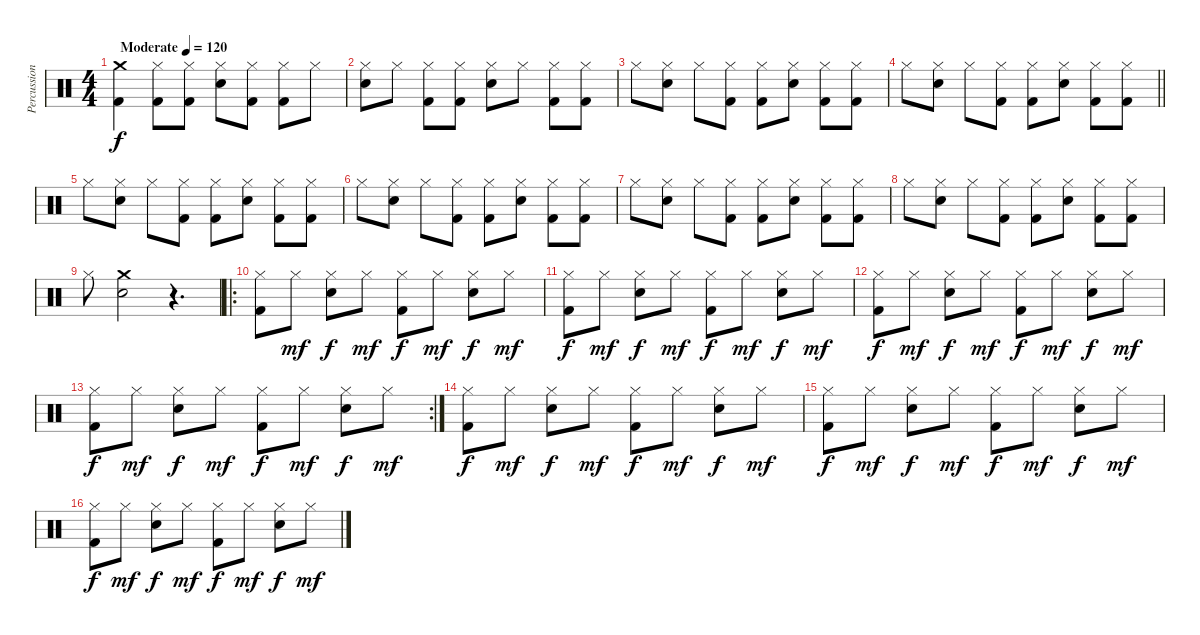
\track ("Percussion" "Percussion") {instrument percussion}
\staff {score}
\articulation defaults
\ts (4 4)
\tempo (120 "Moderate")
\clef neutral
\ks c
("Crash medium (hit)" "Kick (hit) 2").4{dy f} ("Hi-Hat (closed)" "Kick (hit) 2").8 ("Hi-Hat (closed)" "Kick (hit) 2").8 ("Hi-Hat (closed)" "Electric Snare (hit)").8 ("Hi-Hat (closed)" "Kick (hit) 2").8 ("Hi-Hat (closed)" "Kick (hit) 2").8 "Hi-Hat (closed)".8 |
("Hi-Hat (closed)" "Electric Snare (hit)").8 "Hi-Hat (closed)".8 ("Hi-Hat (closed)" "Kick (hit) 2").8 ("Hi-Hat (closed)" "Kick (hit) 2").8 ("Hi-Hat (closed)" "Electric Snare (hit)").8 "Hi-Hat (closed)".8 ("Hi-Hat (closed)" "Kick (hit) 2").8 ("Hi-Hat (closed)" "Kick (hit) 2").8 |
"Hi-Hat (closed)".8 ("Hi-Hat (closed)" "Electric Snare (hit)").8 "Hi-Hat (closed)".8 ("Hi-Hat (closed)" "Kick (hit) 2").8 ("Hi-Hat (closed)" "Kick (hit) 2").8 ("Hi-Hat (closed)" "Electric Snare (hit)").8 ("Hi-Hat (closed)" "Kick (hit) 2").8 ("Hi-Hat (closed)" "Kick (hit) 2").8 |
\barLineRight lightlight "Hi-Hat (closed)".8
("Hi-Hat (closed)" "Electric Snare (hit)").8 "Hi-Hat (closed)".8 ("Hi-Hat (closed)" "Kick (hit) 2").8 ("Hi-Hat (closed)" "Kick (hit) 2").8 ("Hi-Hat (closed)" "Electric Snare (hit)").8 ("Hi-Hat (closed)" "Kick (hit) 2").8 ("Hi-Hat (closed)" "Kick (hit) 2").8 |
"Hi-Hat (closed)".8 ("Hi-Hat (closed)" "Electric Snare (hit)").8 "Hi-Hat (closed)".8 ("Hi-Hat (closed)" "Kick (hit) 2").8 ("Hi-Hat (closed)" "Kick (hit) 2").8 ("Hi-Hat (closed)" "Electric Snare (hit)").8 ("Hi-Hat (closed)" "Kick (hit) 2").8 ("Hi-Hat (closed)" "Kick (hit) 2").8 |
"Hi-Hat (closed)".8 ("Hi-Hat (closed)" "Electric Snare (hit)").8 "Hi-Hat (closed)".8 ("Hi-Hat (closed)" "Kick (hit) 2").8 ("Hi-Hat (closed)" "Kick (hit) 2").8 ("Hi-Hat (closed)" "Electric Snare (hit)").8 ("Hi-Hat (closed)" "Kick (hit) 2").8 ("Hi-Hat (closed)" "Kick (hit) 2").8 |
"Hi-Hat (closed)".8 ("Hi-Hat (closed)" "Electric Snare (hit)").8 "Hi-Hat (closed)".8 ("Hi-Hat (closed)" "Kick (hit) 2").8 ("Hi-Hat (closed)" "Kick (hit) 2").8 ("Hi-Hat (closed)" "Electric Snare (hit)").8 ("Hi-Hat (closed)" "Kick (hit) 2").8 ("Hi-Hat (closed)" "Kick (hit) 2").8 |
"Hi-Hat (closed)".8 ("Hi-Hat (closed)" "Electric Snare (hit)").8 "Hi-Hat (closed)".8 ("Hi-Hat (closed)" "Kick (hit) 2").8 ("Hi-Hat (closed)" "Kick (hit) 2").8 ("Hi-Hat (closed)" "Electric Snare (hit)").8 ("Hi-Hat (closed)" "Kick (hit) 2").8 ("Hi-Hat (closed)" "Kick (hit) 2").8 |
"Hi-Hat (closed)".8 ("Crash medium (hit)" "Electric Snare (hit)").2 r.4{d} |
\ro
("Hi-Hat (closed)" "Kick (hit) 2").8 "Hi-Hat (closed)".8{dy mf} ("Hi-Hat (closed)" "Electric Snare (hit)").8{dy f} "Hi-Hat (closed)".8{dy mf} ("Hi-Hat (closed)" "Kick (hit) 2").8{dy f} "Hi-Hat (closed)".8{dy mf} ("Hi-Hat (closed)" "Electric Snare (hit)").8{dy f} "Hi-Hat (closed)".8{dy mf} |
("Hi-Hat (closed)" "Kick (hit) 2").8{dy f} "Hi-Hat (closed)".8{dy mf} ("Hi-Hat (closed)" "Electric Snare (hit)").8{dy f} "Hi-Hat (closed)".8{dy mf} ("Hi-Hat (closed)" "Kick (hit) 2").8{dy f} "Hi-Hat (closed)".8{dy mf} ("Hi-Hat (closed)" "Electric Snare (hit)").8{dy f} "Hi-Hat (closed)".8{dy mf} |
("Hi-Hat (closed)" "Kick (hit) 2").8{dy f} "Hi-Hat (closed)".8{dy mf} ("Hi-Hat (closed)" "Electric Snare (hit)").8{dy f} "Hi-Hat (closed)".8{dy mf} ("Hi-Hat (closed)" "Kick (hit) 2").8{dy f} "Hi-Hat (closed)".8{dy mf} ("Hi-Hat (closed)" "Electric Snare (hit)").8{dy f} "Hi-Hat (closed)".8{dy mf} |
\rc 2
("Hi-Hat (closed)" "Kick (hit) 2").8{dy f} "Hi-Hat (closed)".8{dy mf} ("Hi-Hat (closed)" "Electric Snare (hit)").8{dy f} "Hi-Hat (closed)".8{dy mf} ("Hi-Hat (closed)" "Kick (hit) 2").8{dy f} "Hi-Hat (closed)".8{dy mf} ("Hi-Hat (closed)" "Electric Snare (hit)").8{dy f} "Hi-Hat (closed)".8{dy mf} |
("Hi-Hat (closed)" "Kick (hit) 2").8{dy f} "Hi-Hat (closed)".8{dy mf} ("Hi-Hat (closed)" "Electric Snare (hit)").8{dy f} "Hi-Hat (closed)".8{dy mf} ("Hi-Hat (closed)" "Kick (hit) 2").8{dy f} "Hi-Hat (closed)".8{dy mf} ("Hi-Hat (closed)" "Electric Snare (hit)").8{dy f} "Hi-Hat (closed)".8{dy mf} |
("Hi-Hat (closed)" "Kick (hit) 2").8{dy f} "Hi-Hat (closed)".8{dy mf} ("Hi-Hat (closed)" "Electric Snare (hit)").8{dy f} "Hi-Hat (closed)".8{dy mf} ("Hi-Hat (closed)" "Kick (hit) 2").8{dy f} "Hi-Hat (closed)".8{dy mf} ("Hi-Hat (closed)" "Electric Snare (hit)").8{dy f} "Hi-Hat (closed)".8{dy mf} |
("Hi-Hat (closed)" "Kick (hit) 2").8{dy f} "Hi-Hat (closed)".8{dy mf} ("Hi-Hat (closed)" "Electric Snare (hit)").8{dy f} "Hi-Hat (closed)".8{dy mf} ("Hi-Hat (closed)" "Kick (hit) 2").8{dy f} "Hi-Hat (closed)".8{dy mf} ("Hi-Hat (closed)" "Electric Snare (hit)").8{dy f} "Hi-Hat (closed)".8{dy mf}
